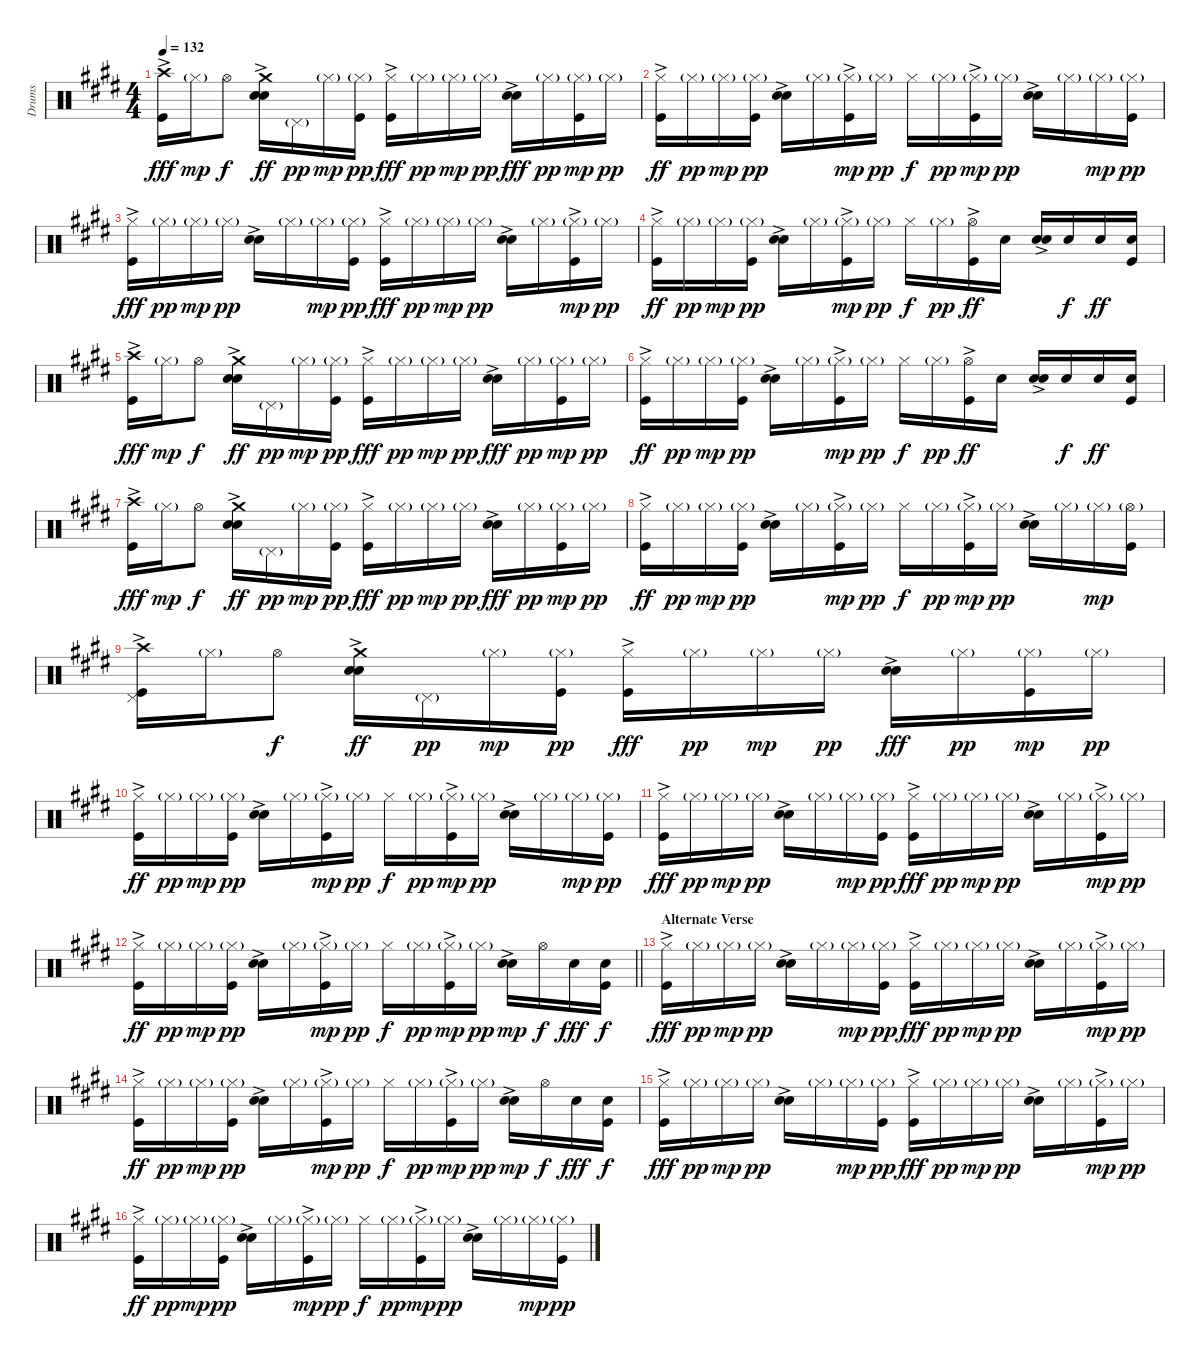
\track ("Drums" "Drums") {instrument percussion}
\staff {score}
\articulation defaults
\ts (4 4)
\tempo 132
\clef neutral
\ks e
("Kick (hit)"{ac} "Crash high (hit)").16{dy fff} "Hi-Hat (closed)"{g}.16{dy mp} "Hi-Hat (open)".8{dy f} ("Snare (hit) 2"{ac} "Electric Snare (hit)" "Crash medium (hit)").16{dy ff} "Pedal Hi-Hat (hit)"{g}.16{dy pp} "Hi-Hat (closed)"{g}.16{dy mp} ("Kick (hit)" "Hi-Hat (closed)"{g}).16{dy pp} ("Kick (hit)"{ac} "Hi-Hat (closed)").16{dy fff} "Hi-Hat (closed)"{g}.16{dy pp} "Hi-Hat (closed)"{g}.16{dy mp} "Hi-Hat (closed)"{g}.16{dy pp} ("Snare (hit) 2"{ac} "Electric Snare (hit)").16{dy fff} "Hi-Hat (closed)"{g}.16{dy pp} ("Kick (hit)" "Hi-Hat (closed)"{g}).16{dy mp} "Hi-Hat (closed)"{g}.16{dy pp} |
("Kick (hit)"{ac} "Hi-Hat (closed)").16{dy ff} "Hi-Hat (closed)"{g}.16{dy pp} "Hi-Hat (closed)"{g}.16{dy mp} ("Kick (hit)" "Hi-Hat (closed)"{g}).16{dy pp} ("Snare (hit) 2"{ac} "Electric Snare (hit)").16 "Hi-Hat (closed)"{g}.16 ("Kick (hit)"{ac} "Hi-Hat (closed)"{g}).16{dy mp} "Hi-Hat (closed)"{g}.16{dy pp} "Hi-Hat (closed)".16{dy f} "Hi-Hat (closed)"{g}.16{dy pp} ("Kick (hit)"{ac} "Hi-Hat (closed)"{g}).16{dy mp} "Hi-Hat (closed)"{g}.16{dy pp} ("Snare (hit) 2"{ac} "Electric Snare (hit)").16 "Hi-Hat (closed)"{g}.16 "Hi-Hat (closed)"{g}.16{dy mp} ("Kick (hit)" "Hi-Hat (closed)"{g}).16{dy pp} |
("Kick (hit)"{ac} "Hi-Hat (closed)").16{dy fff} "Hi-Hat (closed)"{g}.16{dy pp} "Hi-Hat (closed)"{g}.16{dy mp} "Hi-Hat (closed)"{g}.16{dy pp} ("Snare (hit) 2"{ac} "Electric Snare (hit)").16 "Hi-Hat (closed)"{g}.16 "Hi-Hat (closed)"{g}.16{dy mp} ("Kick (hit)" "Hi-Hat (closed)"{g}).16{dy pp} ("Kick (hit)"{ac} "Hi-Hat (closed)").16{dy fff} "Hi-Hat (closed)"{g}.16{dy pp} "Hi-Hat (closed)"{g}.16{dy mp} "Hi-Hat (closed)"{g}.16{dy pp} ("Snare (hit) 2"{ac} "Electric Snare (hit)").16 "Hi-Hat (closed)"{g}.16 ("Kick (hit)"{ac} "Hi-Hat (closed)"{g}).16{dy mp} "Hi-Hat (closed)"{g}.16{dy pp} |
("Kick (hit)"{ac} "Hi-Hat (closed)").16{dy ff} "Hi-Hat (closed)"{g}.16{dy pp} "Hi-Hat (closed)"{g}.16{dy mp} ("Kick (hit)" "Hi-Hat (closed)"{g}).16{dy pp} ("Snare (hit) 2"{ac} "Electric Snare (hit)").16 "Hi-Hat (closed)"{g}.16 ("Kick (hit)"{ac} "Hi-Hat (closed)"{g}).16{dy mp} "Hi-Hat (closed)"{g}.16{dy pp} "Hi-Hat (closed)".16{dy f} "Hi-Hat (closed)"{g}.16{dy pp} ("Kick (hit)"{ac} "Hi-Hat (open)").16{dy ff} "Snare (hit) 2".16 ("Snare (hit) 2"{ac} "Electric Snare (hit)").16 "Snare (hit) 2".16{dy f} "Snare (hit) 2".16{dy ff} ("Kick (hit)" "Snare (hit) 2").16 |
("Kick (hit)"{ac} "Crash high (hit)").16{dy fff} "Hi-Hat (closed)"{g}.16{dy mp} "Hi-Hat (open)".8{dy f} ("Snare (hit) 2"{ac} "Electric Snare (hit)" "Crash medium (hit)").16{dy ff} "Pedal Hi-Hat (hit)"{g}.16{dy pp} "Hi-Hat (closed)"{g}.16{dy mp} ("Kick (hit)" "Hi-Hat (closed)"{g}).16{dy pp} ("Kick (hit)"{ac} "Hi-Hat (closed)").16{dy fff} "Hi-Hat (closed)"{g}.16{dy pp} "Hi-Hat (closed)"{g}.16{dy mp} "Hi-Hat (closed)"{g}.16{dy pp} ("Snare (hit) 2"{ac} "Electric Snare (hit)").16{dy fff} "Hi-Hat (closed)"{g}.16{dy pp} ("Kick (hit)" "Hi-Hat (closed)"{g}).16{dy mp} "Hi-Hat (closed)"{g}.16{dy pp} |
("Kick (hit)"{ac} "Hi-Hat (closed)").16{dy ff} "Hi-Hat (closed)"{g}.16{dy pp} "Hi-Hat (closed)"{g}.16{dy mp} ("Kick (hit)" "Hi-Hat (closed)"{g}).16{dy pp} ("Snare (hit) 2"{ac} "Electric Snare (hit)").16 "Hi-Hat (closed)"{g}.16 ("Kick (hit)"{ac} "Hi-Hat (closed)"{g}).16{dy mp} "Hi-Hat (closed)"{g}.16{dy pp} "Hi-Hat (closed)".16{dy f} "Hi-Hat (closed)"{g}.16{dy pp} ("Kick (hit)"{ac} "Hi-Hat (open)").16{dy ff} "Snare (hit) 2".16 ("Snare (hit) 2"{ac} "Electric Snare (hit)").16 "Snare (hit) 2".16{dy f} "Snare (hit) 2".16{dy ff} ("Kick (hit)" "Snare (hit) 2").16 |
("Kick (hit)"{ac} "Crash high (hit)").16{dy fff} "Hi-Hat (closed)"{g}.16{dy mp} "Hi-Hat (open)".8{dy f} ("Snare (hit) 2"{ac} "Electric Snare (hit)" "Crash medium (hit)").16{dy ff} "Pedal Hi-Hat (hit)"{g}.16{dy pp} "Hi-Hat (closed)"{g}.16{dy mp} ("Kick (hit)" "Hi-Hat (closed)"{g}).16{dy pp} ("Kick (hit)"{ac} "Hi-Hat (closed)").16{dy fff} "Hi-Hat (closed)"{g}.16{dy pp} "Hi-Hat (closed)"{g}.16{dy mp} "Hi-Hat (closed)"{g}.16{dy pp} ("Snare (hit) 2"{ac} "Electric Snare (hit)").16{dy fff} "Hi-Hat (closed)"{g}.16{dy pp} ("Kick (hit)" "Hi-Hat (closed)"{g}).16{dy mp} "Hi-Hat (closed)"{g}.16{dy pp} |
("Kick (hit)"{ac} "Hi-Hat (closed)").16{dy ff} "Hi-Hat (closed)"{g}.16{dy pp} "Hi-Hat (closed)"{g}.16{dy mp} ("Kick (hit)" "Hi-Hat (closed)"{g}).16{dy pp} ("Snare (hit) 2"{ac} "Electric Snare (hit)").16 "Hi-Hat (closed)"{g}.16 ("Kick (hit)"{ac} "Hi-Hat (closed)"{g}).16{dy mp} "Hi-Hat (closed)"{g}.16{dy pp} "Hi-Hat (closed)".16{dy f} "Hi-Hat (closed)"{g}.16{dy pp} ("Kick (hit)"{ac} "Hi-Hat (closed)"{g}).16{dy mp} "Hi-Hat (closed)"{g}.16{dy pp} ("Snare (hit) 2"{ac} "Electric Snare (hit)").16 "Hi-Hat (closed)"{g}.16 "Hi-Hat (closed)"{g}.16{dy mp} ("Kick (hit)" "Hi-Hat (open)"{g}).16 |
("Kick (hit)"{ac} "Crash high (hit)" "Pedal Hi-Hat (hit)").16 "Hi-Hat (closed)"{g}.16 "Hi-Hat (open)".8{dy f} ("Snare (hit) 2"{ac} "Electric Snare (hit)" "Crash medium (hit)").16{dy ff} "Pedal Hi-Hat (hit)"{g}.16{dy pp} "Hi-Hat (closed)"{g}.16{dy mp} ("Kick (hit)" "Hi-Hat (closed)"{g}).16{dy pp} ("Kick (hit)"{ac} "Hi-Hat (closed)").16{dy fff} "Hi-Hat (closed)"{g}.16{dy pp} "Hi-Hat (closed)"{g}.16{dy mp} "Hi-Hat (closed)"{g}.16{dy pp} ("Snare (hit) 2"{ac} "Electric Snare (hit)").16{dy fff} "Hi-Hat (closed)"{g}.16{dy pp} ("Kick (hit)" "Hi-Hat (closed)"{g}).16{dy mp} "Hi-Hat (closed)"{g}.16{dy pp} |
("Kick (hit)"{ac} "Hi-Hat (closed)").16{dy ff} "Hi-Hat (closed)"{g}.16{dy pp} "Hi-Hat (closed)"{g}.16{dy mp} ("Kick (hit)" "Hi-Hat (closed)"{g}).16{dy pp} ("Snare (hit) 2"{ac} "Electric Snare (hit)").16 "Hi-Hat (closed)"{g}.16 ("Kick (hit)"{ac} "Hi-Hat (closed)"{g}).16{dy mp} "Hi-Hat (closed)"{g}.16{dy pp} "Hi-Hat (closed)".16{dy f} "Hi-Hat (closed)"{g}.16{dy pp} ("Kick (hit)"{ac} "Hi-Hat (closed)"{g}).16{dy mp} "Hi-Hat (closed)"{g}.16{dy pp} ("Snare (hit) 2"{ac} "Electric Snare (hit)").16 "Hi-Hat (closed)"{g}.16 "Hi-Hat (closed)"{g}.16{dy mp} ("Kick (hit)" "Hi-Hat (closed)"{g}).16{dy pp} |
("Kick (hit)"{ac} "Hi-Hat (closed)").16{dy fff} "Hi-Hat (closed)"{g}.16{dy pp} "Hi-Hat (closed)"{g}.16{dy mp} "Hi-Hat (closed)"{g}.16{dy pp} ("Snare (hit) 2"{ac} "Electric Snare (hit)").16 "Hi-Hat (closed)"{g}.16 "Hi-Hat (closed)"{g}.16{dy mp} ("Kick (hit)" "Hi-Hat (closed)"{g}).16{dy pp} ("Kick (hit)"{ac} "Hi-Hat (closed)").16{dy fff} "Hi-Hat (closed)"{g}.16{dy pp} "Hi-Hat (closed)"{g}.16{dy mp} "Hi-Hat (closed)"{g}.16{dy pp} ("Snare (hit) 2"{ac} "Electric Snare (hit)").16 "Hi-Hat (closed)"{g}.16 ("Kick (hit)"{ac} "Hi-Hat (closed)"{g}).16{dy mp} "Hi-Hat (closed)"{g}.16{dy pp} |
\barLineRight lightlight
("Kick (hit)"{ac} "Hi-Hat (closed)").16{dy ff} "Hi-Hat (closed)"{g}.16{dy pp} "Hi-Hat (closed)"{g}.16{dy mp} ("Kick (hit)" "Hi-Hat (closed)"{g}).16{dy pp} ("Snare (hit) 2"{ac} "Electric Snare (hit)").16 "Hi-Hat (closed)"{g}.16 ("Kick (hit)"{ac} "Hi-Hat (closed)"{g}).16{dy mp} "Hi-Hat (closed)"{g}.16{dy pp} "Hi-Hat (closed)".16{dy f} "Hi-Hat (closed)"{g}.16{dy pp} ("Kick (hit)"{ac} "Hi-Hat (closed)"{g}).16{dy mp} "Hi-Hat (closed)"{g}.16{dy pp} ("Snare (hit) 2"{ac} "Electric Snare (hit)").16{dy mp} "Hi-Hat (open)".16{dy f} "Snare (hit) 2".16{dy fff} ("Kick (hit)" "Snare (hit) 2").16{dy f} |
\section ("" "Alternate Verse")
("Kick (hit)"{ac} "Hi-Hat (closed)").16{dy fff} "Hi-Hat (closed)"{g}.16{dy pp} "Hi-Hat (closed)"{g}.16{dy mp} "Hi-Hat (closed)"{g}.16{dy pp} ("Snare (hit) 2"{ac} "Electric Snare (hit)").16 "Hi-Hat (closed)"{g}.16 "Hi-Hat (closed)"{g}.16{dy mp} ("Kick (hit)" "Hi-Hat (closed)"{g}).16{dy pp} ("Kick (hit)"{ac} "Hi-Hat (closed)").16{dy fff} "Hi-Hat (closed)"{g}.16{dy pp} "Hi-Hat (closed)"{g}.16{dy mp} "Hi-Hat (closed)"{g}.16{dy pp} ("Snare (hit) 2"{ac} "Electric Snare (hit)").16 "Hi-Hat (closed)"{g}.16 ("Kick (hit)"{ac} "Hi-Hat (closed)"{g}).16{dy mp} "Hi-Hat (closed)"{g}.16{dy pp} |
("Kick (hit)"{ac} "Hi-Hat (closed)").16{dy ff} "Hi-Hat (closed)"{g}.16{dy pp} "Hi-Hat (closed)"{g}.16{dy mp} ("Kick (hit)" "Hi-Hat (closed)"{g}).16{dy pp} ("Snare (hit) 2"{ac} "Electric Snare (hit)").16 "Hi-Hat (closed)"{g}.16 ("Kick (hit)"{ac} "Hi-Hat (closed)"{g}).16{dy mp} "Hi-Hat (closed)"{g}.16{dy pp} "Hi-Hat (closed)".16{dy f} "Hi-Hat (closed)"{g}.16{dy pp} ("Kick (hit)"{ac} "Hi-Hat (closed)"{g}).16{dy mp} "Hi-Hat (closed)"{g}.16{dy pp} ("Snare (hit) 2"{ac} "Electric Snare (hit)").16{dy mp} "Hi-Hat (open)".16{dy f} "Snare (hit) 2".16{dy fff} ("Kick (hit)" "Snare (hit) 2").16{dy f} |
("Kick (hit)"{ac} "Hi-Hat (closed)").16{dy fff} "Hi-Hat (closed)"{g}.16{dy pp} "Hi-Hat (closed)"{g}.16{dy mp} "Hi-Hat (closed)"{g}.16{dy pp} ("Snare (hit) 2"{ac} "Electric Snare (hit)").16 "Hi-Hat (closed)"{g}.16 "Hi-Hat (closed)"{g}.16{dy mp} ("Kick (hit)" "Hi-Hat (closed)"{g}).16{dy pp} ("Kick (hit)"{ac} "Hi-Hat (closed)").16{dy fff} "Hi-Hat (closed)"{g}.16{dy pp} "Hi-Hat (closed)"{g}.16{dy mp} "Hi-Hat (closed)"{g}.16{dy pp} ("Snare (hit) 2"{ac} "Electric Snare (hit)").16 "Hi-Hat (closed)"{g}.16 ("Kick (hit)"{ac} "Hi-Hat (closed)"{g}).16{dy mp} "Hi-Hat (closed)"{g}.16{dy pp} |
("Kick (hit)"{ac} "Hi-Hat (closed)").16{dy ff} "Hi-Hat (closed)"{g}.16{dy pp} "Hi-Hat (closed)"{g}.16{dy mp} ("Kick (hit)" "Hi-Hat (closed)"{g}).16{dy pp} ("Snare (hit) 2"{ac} "Electric Snare (hit)").16 "Hi-Hat (closed)"{g}.16 ("Kick (hit)"{ac} "Hi-Hat (closed)"{g}).16{dy mp} "Hi-Hat (closed)"{g}.16{dy pp} "Hi-Hat (closed)".16{dy f} "Hi-Hat (closed)"{g}.16{dy pp} ("Kick (hit)"{ac} "Hi-Hat (closed)"{g}).16{dy mp} "Hi-Hat (closed)"{g}.16{dy pp} ("Snare (hit) 2"{ac} "Electric Snare (hit)").16 "Hi-Hat (closed)"{g}.16 "Hi-Hat (closed)"{g}.16{dy mp} ("Kick (hit)" "Hi-Hat (closed)"{g}).16{dy pp}
